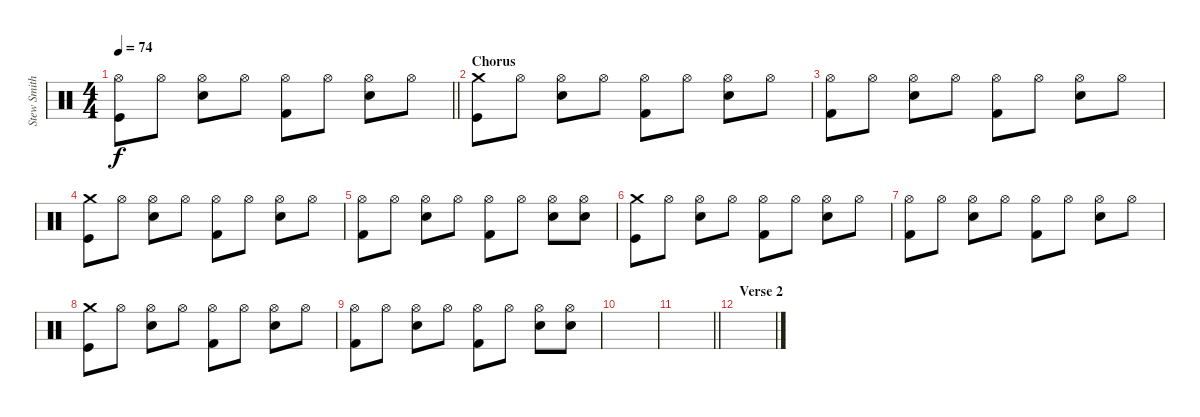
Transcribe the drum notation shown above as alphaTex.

\track ("Stew Smith" "Stew Smith") {instrument percussion}
\staff {score}
\articulation defaults
\ts (4 4)
\tempo 74
\clef neutral
\barLineRight lightlight
\ks c
("Hi-Hat (open)" "Kick (hit)").8{dy f} "Hi-Hat (open)".8 ("Hi-Hat (open)" "Electric Snare (hit)").8 "Hi-Hat (open)".8 ("Hi-Hat (open)" "Kick (hit) 2").8 "Hi-Hat (open)".8 ("Hi-Hat (open)" "Electric Snare (hit)").8 "Hi-Hat (open)".8 |
\section ("" "Chorus")
("Crash medium (hit)" "Kick (hit)").8 "Hi-Hat (open)".8 ("Hi-Hat (open)" "Electric Snare (hit)").8 "Hi-Hat (open)".8 ("Hi-Hat (open)" "Kick (hit) 2").8 "Hi-Hat (open)".8 ("Hi-Hat (open)" "Electric Snare (hit)").8 "Hi-Hat (open)".8 |
("Hi-Hat (open)" "Kick (hit) 2").8 "Hi-Hat (open)".8 ("Hi-Hat (open)" "Electric Snare (hit)").8 "Hi-Hat (open)".8 ("Hi-Hat (open)" "Kick (hit) 2").8 "Hi-Hat (open)".8 ("Hi-Hat (open)" "Electric Snare (hit)").8 "Hi-Hat (open)".8 |
("Crash medium (hit)" "Kick (hit)").8 "Hi-Hat (open)".8 ("Hi-Hat (open)" "Electric Snare (hit)").8 "Hi-Hat (open)".8 ("Hi-Hat (open)" "Kick (hit) 2").8 "Hi-Hat (open)".8 ("Hi-Hat (open)" "Electric Snare (hit)").8 "Hi-Hat (open)".8 |
("Hi-Hat (open)" "Kick (hit) 2").8 "Hi-Hat (open)".8 ("Hi-Hat (open)" "Electric Snare (hit)").8 "Hi-Hat (open)".8 ("Hi-Hat (open)" "Kick (hit) 2").8 "Hi-Hat (open)".8 ("Hi-Hat (open)" "Electric Snare (hit)").8 ("Hi-Hat (open)" "Electric Snare (hit)").8 |
("Crash medium (hit)" "Kick (hit)").8 "Hi-Hat (open)".8 ("Hi-Hat (open)" "Electric Snare (hit)").8 "Hi-Hat (open)".8 ("Hi-Hat (open)" "Kick (hit) 2").8 "Hi-Hat (open)".8 ("Hi-Hat (open)" "Electric Snare (hit)").8 "Hi-Hat (open)".8 |
("Hi-Hat (open)" "Kick (hit) 2").8 "Hi-Hat (open)".8 ("Hi-Hat (open)" "Electric Snare (hit)").8 "Hi-Hat (open)".8 ("Hi-Hat (open)" "Kick (hit) 2").8 "Hi-Hat (open)".8 ("Hi-Hat (open)" "Electric Snare (hit)").8 "Hi-Hat (open)".8 |
("Crash medium (hit)" "Kick (hit)").8 "Hi-Hat (open)".8 ("Hi-Hat (open)" "Electric Snare (hit)").8 "Hi-Hat (open)".8 ("Hi-Hat (open)" "Kick (hit) 2").8 "Hi-Hat (open)".8 ("Hi-Hat (open)" "Electric Snare (hit)").8 "Hi-Hat (open)".8 |
("Hi-Hat (open)" "Kick (hit) 2").8 "Hi-Hat (open)".8 ("Hi-Hat (open)" "Electric Snare (hit)").8 "Hi-Hat (open)".8 ("Hi-Hat (open)" "Kick (hit) 2").8 "Hi-Hat (open)".8 ("Hi-Hat (open)" "Electric Snare (hit)").8 ("Hi-Hat (open)" "Electric Snare (hit)").8 |
|
\barLineRight lightlight
|
\section ("" "Verse 2")
